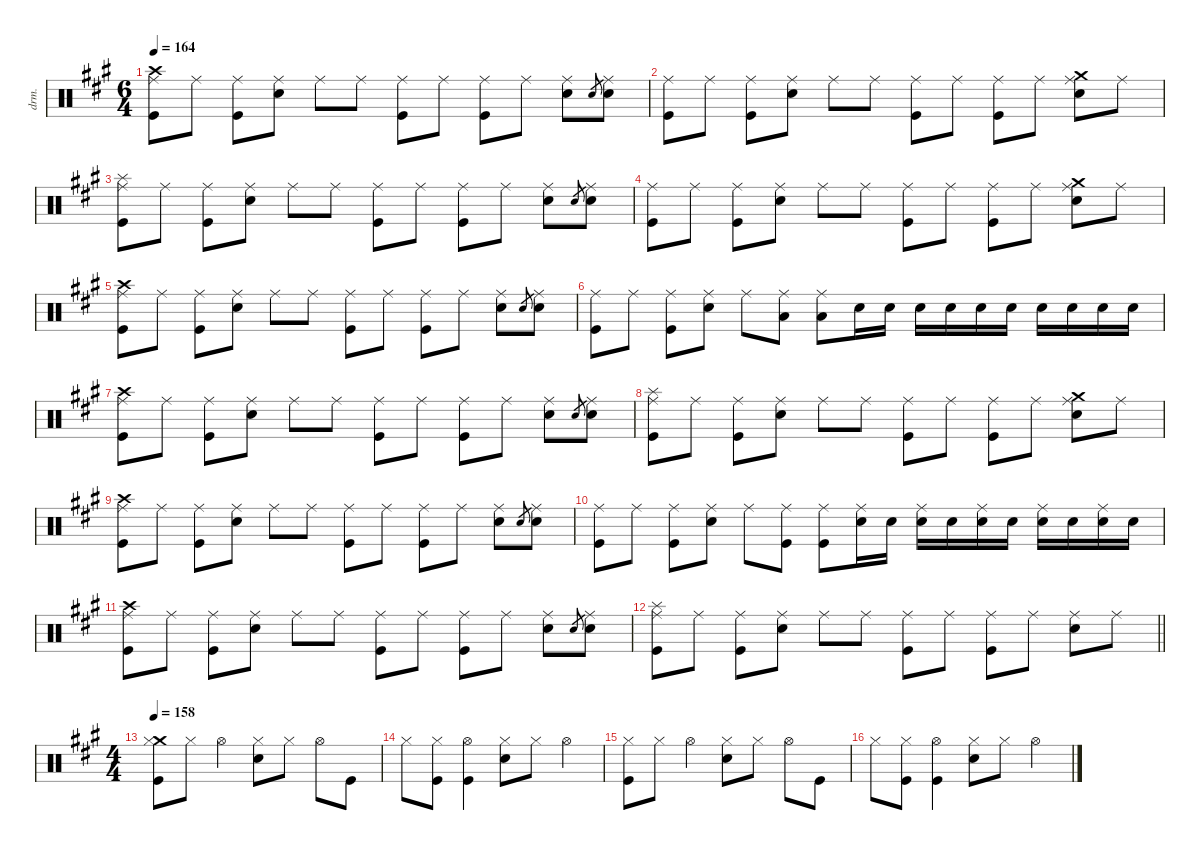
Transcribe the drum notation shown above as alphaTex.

\defaultSystemsLayout 4
\hideDynamics
\bracketExtendMode groupsimilarinstruments
\otherSystemsTrackNameOrientation horizontal
\track ("Drums" "drm.") {defaultSystemsLayout 4 instrument percussion}
\staff {score}
\articulation defaults
\ts (6 4)
\tempo 164
\clef neutral
\ks f#minor
("Crash high (hit)"{acc forcenatural} "Ride (middle)"{acc forcenatural} "Kick (hit)"{acc forcenatural}).8{dy f beam Down} "Ride (middle)"{acc forcenatural}.8{beam Down} ("Ride (middle)"{acc forcenatural} "Kick (hit)"{acc forcenatural}).8{beam Down} ("Ride (middle)"{acc forcenatural} "Snare (hit) 2"{acc forcenatural}).8{beam Down} "Ride (middle)"{acc forcenatural}.8{beam Down} "Ride (middle)"{acc forcenatural}.8{beam Down} ("Ride (middle)"{acc forcenatural} "Kick (hit)"{acc forcenatural}).8{beam Down} "Ride (middle)"{acc forcenatural}.8{beam Down} ("Ride (middle)"{acc forcenatural} "Kick (hit)"{acc forcenatural}).8{beam Down} "Ride (middle)"{acc forcenatural}.8{beam Down} ("Ride (middle)"{acc forcenatural} "Snare (hit) 2"{acc forcenatural}).8{beam Down} "Electric Snare (hit)"{acc forcenatural}.8{gr dy pp beam Up} ("Ride (middle)"{acc forcenatural} "Snare (hit) 2"{acc forcenatural}).8{dy f beam Down} |
("Ride (middle)"{acc forcenatural} "Kick (hit)"{acc forcenatural}).8{beam Down} "Ride (middle)"{acc forcenatural}.8{beam Down} ("Ride (middle)"{acc forcenatural} "Kick (hit)"{acc forcenatural}).8{beam Down} ("Ride (middle)"{acc forcenatural} "Snare (hit) 2"{acc forcenatural}).8{beam Down} "Ride (middle)"{acc forcenatural}.8{beam Down} "Ride (middle)"{acc forcenatural}.8{beam Down} ("Ride (middle)"{acc forcenatural} "Kick (hit)"{acc forcenatural}).8{beam Down} "Ride (middle)"{acc forcenatural}.8{beam Down} ("Ride (middle)"{acc forcenatural} "Kick (hit)"{acc forcenatural}).8{beam Down} "Ride (middle)"{acc forcenatural}.8{beam Down} ("Crash medium (hit)"{acc forcenatural} "Ride (middle)"{acc forcenatural} "Snare (hit) 2"{acc forcenatural}).8{beam Down} "Ride (middle)"{acc forcenatural}.8{beam Down} |
("Splash (hit)"{acc forcenatural} "Ride (middle)"{acc forcenatural} "Kick (hit)"{acc forcenatural}).8{beam Down} "Ride (middle)"{acc forcenatural}.8{beam Down} ("Ride (middle)"{acc forcenatural} "Kick (hit)"{acc forcenatural}).8{beam Down} ("Ride (middle)"{acc forcenatural} "Snare (hit) 2"{acc forcenatural}).8{beam Down} "Ride (middle)"{acc forcenatural}.8{beam Down} "Ride (middle)"{acc forcenatural}.8{beam Down} ("Ride (middle)"{acc forcenatural} "Kick (hit)"{acc forcenatural}).8{beam Down} "Ride (middle)"{acc forcenatural}.8{beam Down} ("Ride (middle)"{acc forcenatural} "Kick (hit)"{acc forcenatural}).8{beam Down} "Ride (middle)"{acc forcenatural}.8{beam Down} ("Ride (middle)"{acc forcenatural} "Snare (hit) 2"{acc forcenatural}).8{beam Down} "Electric Snare (hit)"{acc forcenatural}.8{gr dy pp beam Up} ("Ride (middle)"{acc forcenatural} "Snare (hit) 2"{acc forcenatural}).8{dy f beam Down} |
("Ride (middle)"{acc forcenatural} "Kick (hit)"{acc forcenatural}).8{beam Down} "Ride (middle)"{acc forcenatural}.8{beam Down} ("Ride (middle)"{acc forcenatural} "Kick (hit)"{acc forcenatural}).8{beam Down} ("Ride (middle)"{acc forcenatural} "Snare (hit) 2"{acc forcenatural}).8{beam Down} "Ride (middle)"{acc forcenatural}.8{beam Down} "Ride (middle)"{acc forcenatural}.8{beam Down} ("Ride (middle)"{acc forcenatural} "Kick (hit)"{acc forcenatural}).8{beam Down} "Ride (middle)"{acc forcenatural}.8{beam Down} ("Ride (middle)"{acc forcenatural} "Kick (hit)"{acc forcenatural}).8{beam Down} "Ride (middle)"{acc forcenatural}.8{beam Down} ("Crash medium (hit)"{acc forcenatural} "Ride (middle)"{acc forcenatural} "Snare (hit) 2"{acc forcenatural}).8{beam Down} "Ride (middle)"{acc forcenatural}.8{beam Down} |
("Crash high (hit)"{acc forcenatural} "Ride (middle)"{acc forcenatural} "Kick (hit)"{acc forcenatural}).8{beam Down} "Ride (middle)"{acc forcenatural}.8{beam Down} ("Ride (middle)"{acc forcenatural} "Kick (hit)"{acc forcenatural}).8{beam Down} ("Ride (middle)"{acc forcenatural} "Snare (hit) 2"{acc forcenatural}).8{beam Down} "Ride (middle)"{acc forcenatural}.8{beam Down} "Ride (middle)"{acc forcenatural}.8{beam Down} ("Ride (middle)"{acc forcenatural} "Kick (hit)"{acc forcenatural}).8{beam Down} "Ride (middle)"{acc forcenatural}.8{beam Down} ("Ride (middle)"{acc forcenatural} "Kick (hit)"{acc forcenatural}).8{beam Down} "Ride (middle)"{acc forcenatural}.8{beam Down} ("Ride (middle)"{acc forcenatural} "Snare (hit) 2"{acc forcenatural}).8{beam Down} "Electric Snare (hit)"{acc forcenatural}.8{gr dy pp beam Up} ("Ride (middle)"{acc forcenatural} "Snare (hit) 2"{acc forcenatural}).8{dy f beam Down} |
("Ride (middle)"{acc forcenatural} "Kick (hit)"{acc forcenatural}).8{beam Down} "Ride (middle)"{acc forcenatural}.8{beam Down} ("Ride (middle)"{acc forcenatural} "Kick (hit)"{acc forcenatural}).8{beam Down} ("Ride (middle)"{acc forcenatural} "Snare (hit) 2"{acc forcenatural}).8{beam Down} "Ride (middle)"{acc forcenatural}.8{beam Down} ("Ride (middle)"{acc forcenatural} "Low Tom (hit)"{acc forcenatural}).8{beam Down} ("Ride (middle)"{acc forcenatural} "Low Tom (hit)"{acc forcenatural}).8{beam Down} "Snare (hit) 2"{acc forcenatural}.16{dy p beam Down} "Snare (hit) 2"{acc forcenatural}.16{beam Down} "Snare (hit) 2"{acc forcenatural}.16{dy mf beam Down} "Snare (hit) 2"{acc forcenatural}.16{dy p beam Down} "Snare (hit) 2"{acc forcenatural}.16{beam Down} "Snare (hit) 2"{acc forcenatural}.16{beam Down} "Snare (hit) 2"{acc forcenatural}.16{dy mf beam Down} "Snare (hit) 2"{acc forcenatural}.16{dy p beam Down} "Snare (hit) 2"{acc forcenatural}.16{beam Down} "Snare (hit) 2"{acc forcenatural}.16{beam Down} |
("Crash high (hit)"{acc forcenatural} "Ride (middle)"{acc forcenatural} "Kick (hit)"{acc forcenatural}).8{dy f beam Down} "Ride (middle)"{acc forcenatural}.8{beam Down} ("Ride (middle)"{acc forcenatural} "Kick (hit)"{acc forcenatural}).8{beam Down} ("Ride (middle)"{acc forcenatural} "Snare (hit) 2"{acc forcenatural}).8{beam Down} "Ride (middle)"{acc forcenatural}.8{beam Down} "Ride (middle)"{acc forcenatural}.8{beam Down} ("Ride (middle)"{acc forcenatural} "Kick (hit)"{acc forcenatural}).8{beam Down} "Ride (middle)"{acc forcenatural}.8{beam Down} ("Ride (middle)"{acc forcenatural} "Kick (hit)"{acc forcenatural}).8{beam Down} "Ride (middle)"{acc forcenatural}.8{beam Down} ("Ride (middle)"{acc forcenatural} "Snare (hit) 2"{acc forcenatural}).8{beam Down} "Electric Snare (hit)"{acc forcenatural}.8{gr dy pp beam Up} ("Ride (middle)"{acc forcenatural} "Snare (hit) 2"{acc forcenatural}).8{dy f beam Down} |
("Splash (hit)"{acc forcenatural} "Ride (middle)"{acc forcenatural} "Kick (hit)"{acc forcenatural}).8{beam Down} "Ride (middle)"{acc forcenatural}.8{beam Down} ("Ride (middle)"{acc forcenatural} "Kick (hit)"{acc forcenatural}).8{beam Down} ("Ride (middle)"{acc forcenatural} "Snare (hit) 2"{acc forcenatural}).8{beam Down} "Ride (middle)"{acc forcenatural}.8{beam Down} "Ride (middle)"{acc forcenatural}.8{beam Down} ("Ride (middle)"{acc forcenatural} "Kick (hit)"{acc forcenatural}).8{beam Down} "Ride (middle)"{acc forcenatural}.8{beam Down} ("Ride (middle)"{acc forcenatural} "Kick (hit)"{acc forcenatural}).8{beam Down} "Ride (middle)"{acc forcenatural}.8{beam Down} ("Crash medium (hit)"{acc forcenatural} "Ride (middle)"{acc forcenatural} "Snare (hit) 2"{acc forcenatural}).8{beam Down} "Ride (middle)"{acc forcenatural}.8{beam Down} |
("Crash high (hit)"{acc forcenatural} "Ride (middle)"{acc forcenatural} "Kick (hit)"{acc forcenatural}).8{beam Down} "Ride (middle)"{acc forcenatural}.8{beam Down} ("Ride (middle)"{acc forcenatural} "Kick (hit)"{acc forcenatural}).8{beam Down} ("Ride (middle)"{acc forcenatural} "Snare (hit) 2"{acc forcenatural}).8{beam Down} "Ride (middle)"{acc forcenatural}.8{beam Down} "Ride (middle)"{acc forcenatural}.8{beam Down} ("Ride (middle)"{acc forcenatural} "Kick (hit)"{acc forcenatural}).8{beam Down} "Ride (middle)"{acc forcenatural}.8{beam Down} ("Ride (middle)"{acc forcenatural} "Kick (hit)"{acc forcenatural}).8{beam Down} "Ride (middle)"{acc forcenatural}.8{beam Down} ("Ride (middle)"{acc forcenatural} "Snare (hit) 2"{acc forcenatural}).8{beam Down} "Electric Snare (hit)"{acc forcenatural}.8{gr dy pp beam Up} ("Ride (middle)"{acc forcenatural} "Snare (hit) 2"{acc forcenatural}).8{dy f beam Down} |
("Ride (middle)"{acc forcenatural} "Kick (hit)"{acc forcenatural}).8{beam Down} "Ride (middle)"{acc forcenatural}.8{beam Down} ("Ride (middle)"{acc forcenatural} "Kick (hit)"{acc forcenatural}).8{beam Down} ("Ride (middle)"{acc forcenatural} "Snare (hit) 2"{acc forcenatural}).8{beam Down} "Ride (middle)"{acc forcenatural}.8{beam Down} ("Ride (middle)"{acc forcenatural} "Kick (hit)"{acc forcenatural}).8{beam Down} ("Ride (middle)"{acc forcenatural} "Kick (hit)"{acc forcenatural}).8{beam Down} ("Ride (middle)"{acc forcenatural} "Snare (hit) 2"{acc forcenatural}).16{beam Down} "Snare (hit) 2"{acc forcenatural}.16{dy p beam Down} ("Ride (middle)"{acc forcenatural} "Snare (hit) 2"{acc forcenatural}).16{dy f beam Down} "Snare (hit) 2"{acc forcenatural}.16{dy p beam Down} ("Ride (middle)"{acc forcenatural} "Snare (hit) 2"{acc forcenatural}).16{dy f beam Down} "Snare (hit) 2"{acc forcenatural}.16{dy p beam Down} ("Ride (middle)"{acc forcenatural} "Snare (hit) 2"{acc forcenatural}).16{dy f beam Down} "Snare (hit) 2"{acc forcenatural}.16{dy p beam Down} ("Ride (middle)"{acc forcenatural} "Snare (hit) 2"{acc forcenatural}).16{dy f beam Down} "Snare (hit) 2"{acc forcenatural}.16{dy p beam Down} |
("Crash high (hit)"{acc forcenatural} "Ride (middle)"{acc forcenatural} "Kick (hit)"{acc forcenatural}).8{dy f beam Down} "Ride (middle)"{acc forcenatural}.8{beam Down} ("Ride (middle)"{acc forcenatural} "Kick (hit)"{acc forcenatural}).8{beam Down} ("Ride (middle)"{acc forcenatural} "Snare (hit) 2"{acc forcenatural}).8{beam Down} "Ride (middle)"{acc forcenatural}.8{beam Down} "Ride (middle)"{acc forcenatural}.8{beam Down} ("Ride (middle)"{acc forcenatural} "Kick (hit)"{acc forcenatural}).8{beam Down} "Ride (middle)"{acc forcenatural}.8{beam Down} ("Ride (middle)"{acc forcenatural} "Kick (hit)"{acc forcenatural}).8{beam Down} "Ride (middle)"{acc forcenatural}.8{beam Down} ("Ride (middle)"{acc forcenatural} "Snare (hit) 2"{acc forcenatural}).8{beam Down} "Electric Snare (hit)"{acc forcenatural}.8{gr dy pp beam Up} ("Ride (middle)"{acc forcenatural} "Snare (hit) 2"{acc forcenatural}).8{dy f beam Down} |
\barLineRight lightlight
("Splash (hit)"{acc forcenatural} "Ride (middle)"{acc forcenatural} "Kick (hit)"{acc forcenatural}).8{beam Down} "Ride (middle)"{acc forcenatural}.8{beam Down} ("Ride (middle)"{acc forcenatural} "Kick (hit)"{acc forcenatural}).8{beam Down} ("Ride (middle)"{acc forcenatural} "Snare (hit) 2"{acc forcenatural}).8{beam Down} "Ride (middle)"{acc forcenatural}.8{beam Down} "Ride (middle)"{acc forcenatural}.8{beam Down} ("Ride (middle)"{acc forcenatural} "Kick (hit)"{acc forcenatural}).8{beam Down} "Ride (middle)"{acc forcenatural}.8{beam Down} ("Ride (middle)"{acc forcenatural} "Kick (hit)"{acc forcenatural}).8{beam Down} "Ride (middle)"{acc forcenatural}.8{beam Down} ("Ride (middle)"{acc forcenatural} "Snare (hit) 2"{acc forcenatural}).8{beam Down} "Ride (middle)"{acc forcenatural}.8{beam Down} |
\ts (4 4)
\beaming (8 2 2 2 2)
\tempo 158
("Crash medium (hit)"{acc forcenatural} "Hi-Hat (closed)"{acc forcenatural} "Kick (hit)"{acc forcenatural}).8{beam Down} "Hi-Hat (closed)"{acc forcenatural}.8{dy mf beam Down} "Hi-Hat (open)"{acc forcenatural}.4{dy f beam Down} ("Hi-Hat (closed)"{acc forcenatural} "Snare (hit) 2"{acc forcenatural}).8{beam Down} "Hi-Hat (closed)"{acc forcenatural}.8{dy mf beam Down} "Hi-Hat (open)"{acc forcenatural}.8{dy f beam Down} "Kick (hit)"{acc forcenatural}.8{beam Down} |
"Hi-Hat (closed)"{acc forcenatural}.8{beam Down} ("Hi-Hat (closed)"{acc forcenatural} "Kick (hit)"{acc forcenatural}).8{dy mf beam Down} ("Hi-Hat (open)"{acc forcenatural} "Kick (hit)"{acc forcenatural}).4{dy f beam Down} ("Hi-Hat (closed)"{acc forcenatural} "Snare (hit) 2"{acc forcenatural}).8{beam Down} "Hi-Hat (closed)"{acc forcenatural}.8{dy mf beam Down} "Hi-Hat (open)"{acc forcenatural}.4{dy f beam Down} |
("Hi-Hat (closed)"{acc forcenatural} "Kick (hit)"{acc forcenatural}).8{beam Down} "Hi-Hat (closed)"{acc forcenatural}.8{dy mf beam Down} "Hi-Hat (open)"{acc forcenatural}.4{dy f beam Down} ("Hi-Hat (closed)"{acc forcenatural} "Snare (hit) 2"{acc forcenatural}).8{beam Down} "Hi-Hat (closed)"{acc forcenatural}.8{dy mf beam Down} "Hi-Hat (open)"{acc forcenatural}.8{dy f beam Down} "Kick (hit)"{acc forcenatural}.8{beam Down} |
"Hi-Hat (closed)"{acc forcenatural}.8{beam Down} ("Hi-Hat (closed)"{acc forcenatural} "Kick (hit)"{acc forcenatural}).8{dy mf beam Down} ("Hi-Hat (open)"{acc forcenatural} "Kick (hit)"{acc forcenatural}).4{dy f beam Down} ("Hi-Hat (closed)"{acc forcenatural} "Snare (hit) 2"{acc forcenatural}).8{beam Down} "Hi-Hat (closed)"{acc forcenatural}.8{dy mf beam Down} "Hi-Hat (open)"{acc forcenatural}.4{dy f beam Down}
